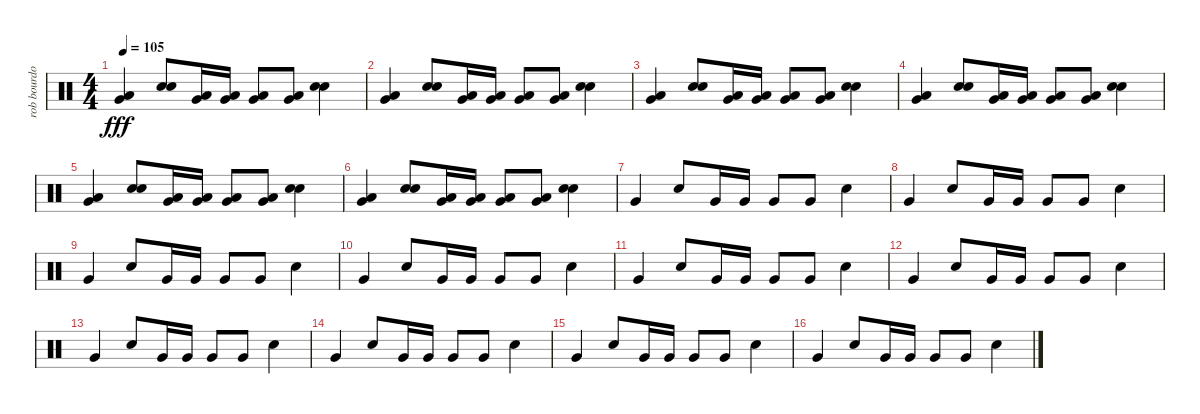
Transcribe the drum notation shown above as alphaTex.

\track ("rob bourdon" "rob bourdo") {instrument percussion}
\staff {score}
\articulation defaults
\ts (4 4)
\tempo 105
\clef neutral
\ks c
("Very Low Tom (hit)" "Low Floor Tom (hit)").4{dy fff} ("Snare (hit) 2" "Electric Snare (hit)").8 ("Very Low Tom (hit)" "Low Floor Tom (hit)").16 ("Very Low Tom (hit)" "Low Floor Tom (hit)").16 ("Very Low Tom (hit)" "Low Floor Tom (hit)").8 ("Very Low Tom (hit)" "Low Floor Tom (hit)").8 ("Snare (hit) 2" "Electric Snare (hit)").4 |
("Very Low Tom (hit)" "Low Floor Tom (hit)").4 ("Snare (hit) 2" "Electric Snare (hit)").8 ("Very Low Tom (hit)" "Low Floor Tom (hit)").16 ("Very Low Tom (hit)" "Low Floor Tom (hit)").16 ("Very Low Tom (hit)" "Low Floor Tom (hit)").8 ("Very Low Tom (hit)" "Low Floor Tom (hit)").8 ("Snare (hit) 2" "Electric Snare (hit)").4 |
("Very Low Tom (hit)" "Low Floor Tom (hit)").4 ("Snare (hit) 2" "Electric Snare (hit)").8 ("Very Low Tom (hit)" "Low Floor Tom (hit)").16 ("Very Low Tom (hit)" "Low Floor Tom (hit)").16 ("Very Low Tom (hit)" "Low Floor Tom (hit)").8 ("Very Low Tom (hit)" "Low Floor Tom (hit)").8 ("Snare (hit) 2" "Electric Snare (hit)").4 |
("Very Low Tom (hit)" "Low Floor Tom (hit)").4 ("Snare (hit) 2" "Electric Snare (hit)").8 ("Very Low Tom (hit)" "Low Floor Tom (hit)").16 ("Very Low Tom (hit)" "Low Floor Tom (hit)").16 ("Very Low Tom (hit)" "Low Floor Tom (hit)").8 ("Very Low Tom (hit)" "Low Floor Tom (hit)").8 ("Snare (hit) 2" "Electric Snare (hit)").4 |
("Very Low Tom (hit)" "Low Floor Tom (hit)").4 ("Snare (hit) 2" "Electric Snare (hit)").8 ("Very Low Tom (hit)" "Low Floor Tom (hit)").16 ("Very Low Tom (hit)" "Low Floor Tom (hit)").16 ("Very Low Tom (hit)" "Low Floor Tom (hit)").8 ("Very Low Tom (hit)" "Low Floor Tom (hit)").8 ("Snare (hit) 2" "Electric Snare (hit)").4 |
("Very Low Tom (hit)" "Low Floor Tom (hit)").4 ("Snare (hit) 2" "Electric Snare (hit)").8 ("Very Low Tom (hit)" "Low Floor Tom (hit)").16 ("Very Low Tom (hit)" "Low Floor Tom (hit)").16 ("Very Low Tom (hit)" "Low Floor Tom (hit)").8 ("Very Low Tom (hit)" "Low Floor Tom (hit)").8 ("Snare (hit) 2" "Electric Snare (hit)").4 |
"Very Low Tom (hit)".4 "Snare (hit) 2".8 "Very Low Tom (hit)".16 "Very Low Tom (hit)".16 "Very Low Tom (hit)".8 "Very Low Tom (hit)".8 "Snare (hit) 2".4 |
"Very Low Tom (hit)".4 "Snare (hit) 2".8 "Very Low Tom (hit)".16 "Very Low Tom (hit)".16 "Very Low Tom (hit)".8 "Very Low Tom (hit)".8 "Snare (hit) 2".4 |
"Very Low Tom (hit)".4 "Snare (hit) 2".8 "Very Low Tom (hit)".16 "Very Low Tom (hit)".16 "Very Low Tom (hit)".8 "Very Low Tom (hit)".8 "Snare (hit) 2".4 |
"Very Low Tom (hit)".4 "Snare (hit) 2".8 "Very Low Tom (hit)".16 "Very Low Tom (hit)".16 "Very Low Tom (hit)".8 "Very Low Tom (hit)".8 "Snare (hit) 2".4 |
"Very Low Tom (hit)".4 "Snare (hit) 2".8 "Very Low Tom (hit)".16 "Very Low Tom (hit)".16 "Very Low Tom (hit)".8 "Very Low Tom (hit)".8 "Snare (hit) 2".4 |
"Very Low Tom (hit)".4 "Snare (hit) 2".8 "Very Low Tom (hit)".16 "Very Low Tom (hit)".16 "Very Low Tom (hit)".8 "Very Low Tom (hit)".8 "Snare (hit) 2".4 |
"Very Low Tom (hit)".4 "Snare (hit) 2".8 "Very Low Tom (hit)".16 "Very Low Tom (hit)".16 "Very Low Tom (hit)".8 "Very Low Tom (hit)".8 "Snare (hit) 2".4 |
"Very Low Tom (hit)".4 "Snare (hit) 2".8 "Very Low Tom (hit)".16 "Very Low Tom (hit)".16 "Very Low Tom (hit)".8 "Very Low Tom (hit)".8 "Snare (hit) 2".4 |
"Very Low Tom (hit)".4 "Snare (hit) 2".8 "Very Low Tom (hit)".16 "Very Low Tom (hit)".16 "Very Low Tom (hit)".8 "Very Low Tom (hit)".8 "Snare (hit) 2".4 |
"Very Low Tom (hit)".4 "Snare (hit) 2".8 "Very Low Tom (hit)".16 "Very Low Tom (hit)".16 "Very Low Tom (hit)".8 "Very Low Tom (hit)".8 "Snare (hit) 2".4
